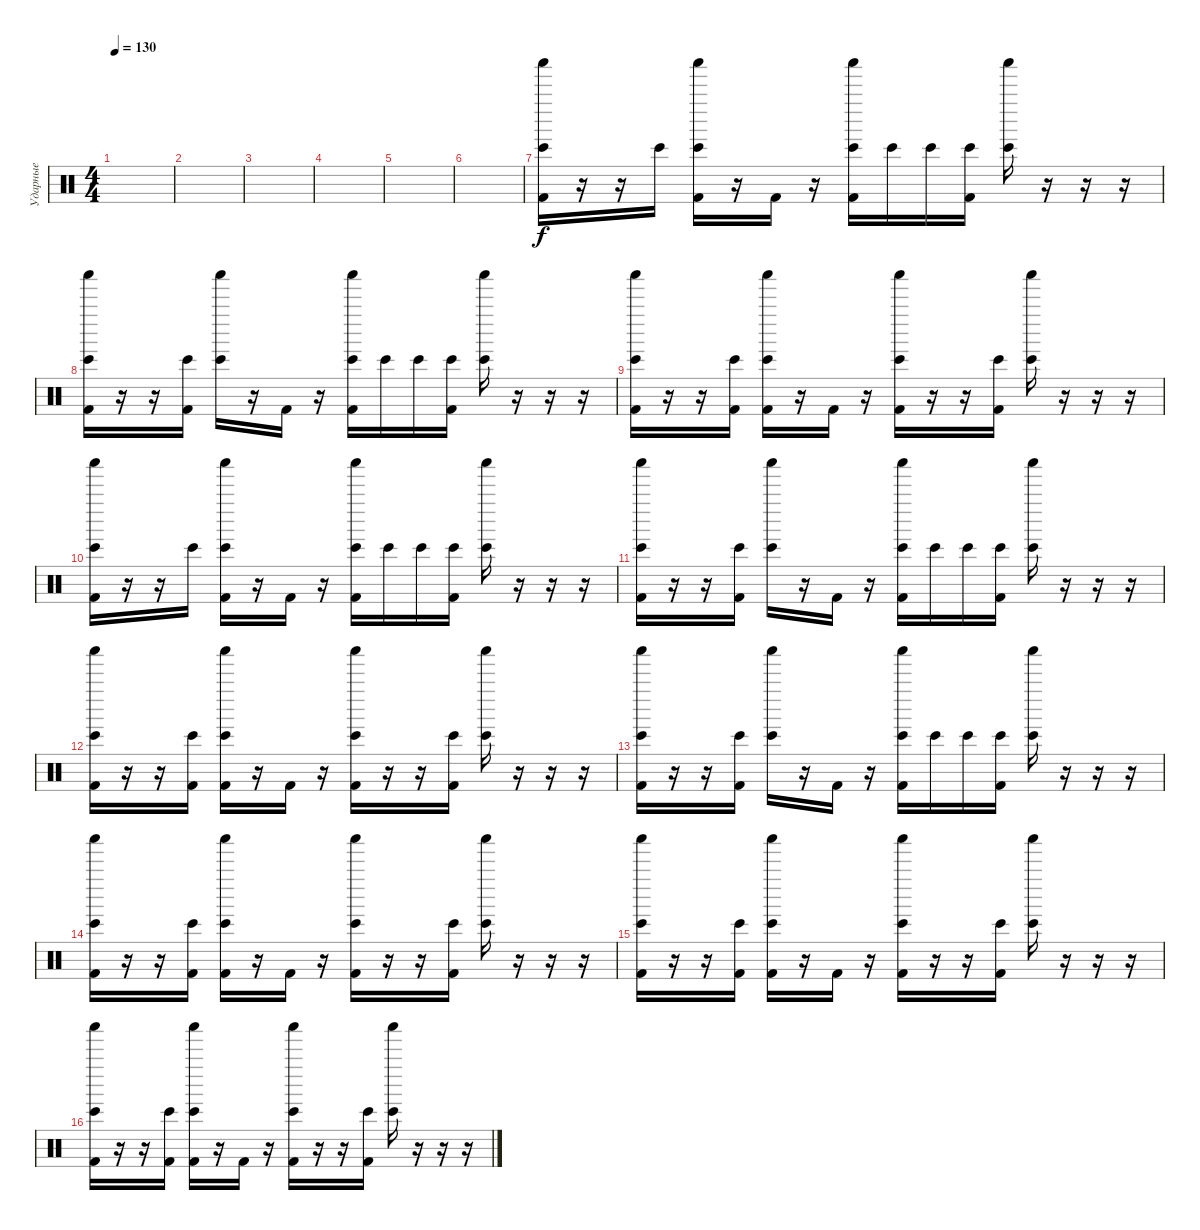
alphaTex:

\track ("Ударные" "Ударные") {instrument percussion}
\staff {score}
\articulation defaults
\ts (4 4)
\tempo 130
\clef neutral
\ks c
|
|
|
|
|
|
("Bongo High (hit)" "Shaker (hit)" "Kick (hit) 2").16 r.16 r.16 "Bongo High (hit)".16 ("Bongo High (hit)" "Shaker (hit)" "Kick (hit) 2").16 r.16 "Kick (hit) 2".16 r.16 ("Bongo High (hit)" "Shaker (hit)" "Kick (hit) 2").16 "Bongo High (hit)".16 "Bongo High (hit)".16 ("Bongo High (hit)" "Kick (hit) 2").16 ("Bongo High (hit)" "Shaker (hit)").16 r.16 r.16 r.16 |
("Bongo High (hit)" "Shaker (hit)" "Kick (hit) 2").16 r.16 r.16 ("Bongo High (hit)" "Kick (hit) 2").16 ("Bongo High (hit)" "Shaker (hit)").16 r.16 "Kick (hit) 2".16 r.16 ("Bongo High (hit)" "Shaker (hit)" "Kick (hit) 2").16 "Bongo High (hit)".16 "Bongo High (hit)".16 ("Bongo High (hit)" "Kick (hit) 2").16 ("Bongo High (hit)" "Shaker (hit)").16 r.16 r.16 r.16 |
("Bongo High (hit)" "Shaker (hit)" "Kick (hit) 2").16 r.16 r.16 ("Bongo High (hit)" "Kick (hit) 2").16 ("Bongo High (hit)" "Shaker (hit)" "Kick (hit) 2").16 r.16 "Kick (hit) 2".16 r.16 ("Bongo High (hit)" "Shaker (hit)" "Kick (hit) 2").16 r.16 r.16 ("Bongo High (hit)" "Kick (hit) 2").16 ("Bongo High (hit)" "Shaker (hit)").16 r.16 r.16 r.16 |
("Bongo High (hit)" "Shaker (hit)" "Kick (hit) 2").16 r.16 r.16 "Bongo High (hit)".16 ("Bongo High (hit)" "Shaker (hit)" "Kick (hit) 2").16 r.16 "Kick (hit) 2".16 r.16 ("Bongo High (hit)" "Shaker (hit)" "Kick (hit) 2").16 "Bongo High (hit)".16 "Bongo High (hit)".16 ("Bongo High (hit)" "Kick (hit) 2").16 ("Bongo High (hit)" "Shaker (hit)").16 r.16 r.16 r.16 |
("Bongo High (hit)" "Shaker (hit)" "Kick (hit) 2").16 r.16 r.16 ("Bongo High (hit)" "Kick (hit) 2").16 ("Bongo High (hit)" "Shaker (hit)").16 r.16 "Kick (hit) 2".16 r.16 ("Bongo High (hit)" "Shaker (hit)" "Kick (hit) 2").16 "Bongo High (hit)".16 "Bongo High (hit)".16 ("Bongo High (hit)" "Kick (hit) 2").16 ("Bongo High (hit)" "Shaker (hit)").16 r.16 r.16 r.16 |
("Bongo High (hit)" "Shaker (hit)" "Kick (hit) 2").16 r.16 r.16 ("Bongo High (hit)" "Kick (hit) 2").16 ("Bongo High (hit)" "Shaker (hit)" "Kick (hit) 2").16 r.16 "Kick (hit) 2".16 r.16 ("Bongo High (hit)" "Shaker (hit)" "Kick (hit) 2").16 r.16 r.16 ("Bongo High (hit)" "Kick (hit) 2").16 ("Bongo High (hit)" "Shaker (hit)").16 r.16 r.16 r.16 |
("Bongo High (hit)" "Shaker (hit)" "Kick (hit) 2").16 r.16 r.16 ("Bongo High (hit)" "Kick (hit) 2").16 ("Bongo High (hit)" "Shaker (hit)").16 r.16 "Kick (hit) 2".16 r.16 ("Bongo High (hit)" "Shaker (hit)" "Kick (hit) 2").16 "Bongo High (hit)".16 "Bongo High (hit)".16 ("Bongo High (hit)" "Kick (hit) 2").16 ("Bongo High (hit)" "Shaker (hit)").16 r.16 r.16 r.16 |
("Bongo High (hit)" "Shaker (hit)" "Kick (hit) 2").16 r.16 r.16 ("Bongo High (hit)" "Kick (hit) 2").16 ("Bongo High (hit)" "Shaker (hit)" "Kick (hit) 2").16 r.16 "Kick (hit) 2".16 r.16 ("Bongo High (hit)" "Shaker (hit)" "Kick (hit) 2").16 r.16 r.16 ("Bongo High (hit)" "Kick (hit) 2").16 ("Bongo High (hit)" "Shaker (hit)").16 r.16 r.16 r.16 |
("Bongo High (hit)" "Shaker (hit)" "Kick (hit) 2").16 r.16 r.16 ("Bongo High (hit)" "Kick (hit) 2").16 ("Bongo High (hit)" "Shaker (hit)" "Kick (hit) 2").16 r.16 "Kick (hit) 2".16 r.16 ("Bongo High (hit)" "Shaker (hit)" "Kick (hit) 2").16 r.16 r.16 ("Bongo High (hit)" "Kick (hit) 2").16 ("Bongo High (hit)" "Shaker (hit)").16 r.16 r.16 r.16 |
("Bongo High (hit)" "Shaker (hit)" "Kick (hit) 2").16 r.16 r.16 ("Bongo High (hit)" "Kick (hit) 2").16 ("Bongo High (hit)" "Shaker (hit)" "Kick (hit) 2").16 r.16 "Kick (hit) 2".16 r.16 ("Bongo High (hit)" "Shaker (hit)" "Kick (hit) 2").16 r.16 r.16 ("Bongo High (hit)" "Kick (hit) 2").16 ("Bongo High (hit)" "Shaker (hit)").16 r.16 r.16 r.16
